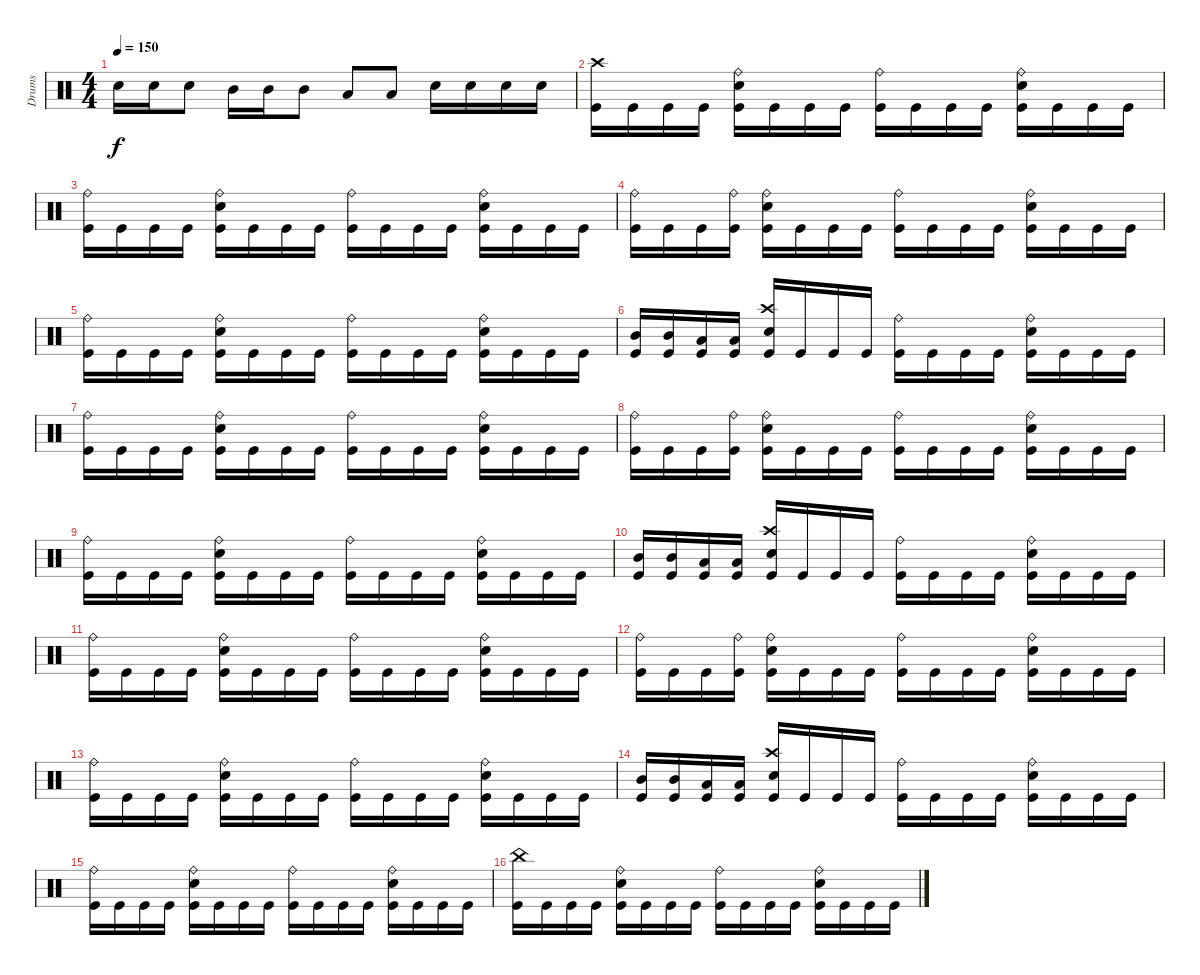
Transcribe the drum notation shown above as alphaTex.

\track ("Drums" "Drums") {instrument percussion}
\staff {score}
\articulation defaults
\ts (4 4)
\tempo 150
\clef neutral
\ks c "Electric Snare (hit)".16{dy f} "Electric Snare (hit)".16 "Electric Snare (hit)".8 "Mid Tom (hit)".16 "Mid Tom (hit)".16 "Mid Tom (hit)".8 "Low Tom (hit)".8 "Low Tom (hit)".8 "Electric Snare (hit)".16 "Electric Snare (hit)".16 "Electric Snare (hit)".16 "Electric Snare (hit)".16
|
("Crash high (hit)" "Kick (hit)").16 "Kick (hit)".16 "Kick (hit)".16 "Kick (hit)".16 ("Ride (bell)" "Electric Snare (hit)" "Kick (hit)").16 "Kick (hit)".16 "Kick (hit)".16 "Kick (hit)".16 ("Ride (bell)" "Kick (hit)").16 "Kick (hit)".16 "Kick (hit)".16 "Kick (hit)".16 ("Ride (bell)" "Electric Snare (hit)" "Kick (hit)").16 "Kick (hit)".16 "Kick (hit)".16 "Kick (hit)".16 |
("Ride (bell)" "Kick (hit)").16 "Kick (hit)".16 "Kick (hit)".16 "Kick (hit)".16 ("Ride (bell)" "Electric Snare (hit)" "Kick (hit)").16 "Kick (hit)".16 "Kick (hit)".16 "Kick (hit)".16 ("Ride (bell)" "Kick (hit)").16 "Kick (hit)".16 "Kick (hit)".16 "Kick (hit)".16 ("Ride (bell)" "Electric Snare (hit)" "Kick (hit)").16 "Kick (hit)".16 "Kick (hit)".16 "Kick (hit)".16 |
("Ride (bell)" "Kick (hit)").16 "Kick (hit)".16 "Kick (hit)".16 ("Ride (bell)" "Kick (hit)").16 ("Ride (bell)" "Electric Snare (hit)" "Kick (hit)").16 "Kick (hit)".16 "Kick (hit)".16 "Kick (hit)".16 ("Ride (bell)" "Kick (hit)").16 "Kick (hit)".16 "Kick (hit)".16 "Kick (hit)".16 ("Ride (bell)" "Electric Snare (hit)" "Kick (hit)").16 "Kick (hit)".16 "Kick (hit)".16 "Kick (hit)".16 |
("Ride (bell)" "Kick (hit)").16 "Kick (hit)".16 "Kick (hit)".16 "Kick (hit)".16 ("Ride (bell)" "Electric Snare (hit)" "Kick (hit)").16 "Kick (hit)".16 "Kick (hit)".16 "Kick (hit)".16 ("Ride (bell)" "Kick (hit)").16 "Kick (hit)".16 "Kick (hit)".16 "Kick (hit)".16 ("Ride (bell)" "Electric Snare (hit)" "Kick (hit)").16 "Kick (hit)".16 "Kick (hit)".16 "Kick (hit)".16 |
("Mid Tom (hit)" "Kick (hit)").16 ("Mid Tom (hit)" "Kick (hit)").16 ("Low Tom (hit)" "Kick (hit)").16 ("Low Tom (hit)" "Kick (hit)").16 ("Crash high (hit)" "Electric Snare (hit)" "Kick (hit)").16 "Kick (hit)".16 "Kick (hit)".16 "Kick (hit)".16 ("Ride (bell)" "Kick (hit)").16 "Kick (hit)".16 "Kick (hit)".16 "Kick (hit)".16 ("Ride (bell)" "Electric Snare (hit)" "Kick (hit)").16 "Kick (hit)".16 "Kick (hit)".16 "Kick (hit)".16 |
("Ride (bell)" "Kick (hit)").16 "Kick (hit)".16 "Kick (hit)".16 "Kick (hit)".16 ("Ride (bell)" "Electric Snare (hit)" "Kick (hit)").16 "Kick (hit)".16 "Kick (hit)".16 "Kick (hit)".16 ("Ride (bell)" "Kick (hit)").16 "Kick (hit)".16 "Kick (hit)".16 "Kick (hit)".16 ("Ride (bell)" "Electric Snare (hit)" "Kick (hit)").16 "Kick (hit)".16 "Kick (hit)".16 "Kick (hit)".16 |
("Ride (bell)" "Kick (hit)").16 "Kick (hit)".16 "Kick (hit)".16 ("Ride (bell)" "Kick (hit)").16 ("Ride (bell)" "Electric Snare (hit)" "Kick (hit)").16 "Kick (hit)".16 "Kick (hit)".16 "Kick (hit)".16 ("Ride (bell)" "Kick (hit)").16 "Kick (hit)".16 "Kick (hit)".16 "Kick (hit)".16 ("Ride (bell)" "Electric Snare (hit)" "Kick (hit)").16 "Kick (hit)".16 "Kick (hit)".16 "Kick (hit)".16 |
("Ride (bell)" "Kick (hit)").16 "Kick (hit)".16 "Kick (hit)".16 "Kick (hit)".16 ("Ride (bell)" "Electric Snare (hit)" "Kick (hit)").16 "Kick (hit)".16 "Kick (hit)".16 "Kick (hit)".16 ("Ride (bell)" "Kick (hit)").16 "Kick (hit)".16 "Kick (hit)".16 "Kick (hit)".16 ("Ride (bell)" "Electric Snare (hit)" "Kick (hit)").16 "Kick (hit)".16 "Kick (hit)".16 "Kick (hit)".16 |
("Mid Tom (hit)" "Kick (hit)").16 ("Mid Tom (hit)" "Kick (hit)").16 ("Low Tom (hit)" "Kick (hit)").16 ("Low Tom (hit)" "Kick (hit)").16 ("Crash high (hit)" "Electric Snare (hit)" "Kick (hit)").16 "Kick (hit)".16 "Kick (hit)".16 "Kick (hit)".16 ("Ride (bell)" "Kick (hit)").16 "Kick (hit)".16 "Kick (hit)".16 "Kick (hit)".16 ("Ride (bell)" "Electric Snare (hit)" "Kick (hit)").16 "Kick (hit)".16 "Kick (hit)".16 "Kick (hit)".16 |
("Ride (bell)" "Kick (hit)").16 "Kick (hit)".16 "Kick (hit)".16 "Kick (hit)".16 ("Ride (bell)" "Electric Snare (hit)" "Kick (hit)").16 "Kick (hit)".16 "Kick (hit)".16 "Kick (hit)".16 ("Ride (bell)" "Kick (hit)").16 "Kick (hit)".16 "Kick (hit)".16 "Kick (hit)".16 ("Ride (bell)" "Electric Snare (hit)" "Kick (hit)").16 "Kick (hit)".16 "Kick (hit)".16 "Kick (hit)".16 |
("Ride (bell)" "Kick (hit)").16 "Kick (hit)".16 "Kick (hit)".16 ("Ride (bell)" "Kick (hit)").16 ("Ride (bell)" "Electric Snare (hit)" "Kick (hit)").16 "Kick (hit)".16 "Kick (hit)".16 "Kick (hit)".16 ("Ride (bell)" "Kick (hit)").16 "Kick (hit)".16 "Kick (hit)".16 "Kick (hit)".16 ("Ride (bell)" "Electric Snare (hit)" "Kick (hit)").16 "Kick (hit)".16 "Kick (hit)".16 "Kick (hit)".16 |
("Ride (bell)" "Kick (hit)").16 "Kick (hit)".16 "Kick (hit)".16 "Kick (hit)".16 ("Ride (bell)" "Electric Snare (hit)" "Kick (hit)").16 "Kick (hit)".16 "Kick (hit)".16 "Kick (hit)".16 ("Ride (bell)" "Kick (hit)").16 "Kick (hit)".16 "Kick (hit)".16 "Kick (hit)".16 ("Ride (bell)" "Electric Snare (hit)" "Kick (hit)").16 "Kick (hit)".16 "Kick (hit)".16 "Kick (hit)".16 |
("Mid Tom (hit)" "Kick (hit)").16 ("Mid Tom (hit)" "Kick (hit)").16 ("Low Tom (hit)" "Kick (hit)").16 ("Low Tom (hit)" "Kick (hit)").16 ("Crash high (hit)" "Electric Snare (hit)" "Kick (hit)").16 "Kick (hit)".16 "Kick (hit)".16 "Kick (hit)".16 ("Ride (bell)" "Kick (hit)").16 "Kick (hit)".16 "Kick (hit)".16 "Kick (hit)".16 ("Ride (bell)" "Electric Snare (hit)" "Kick (hit)").16 "Kick (hit)".16 "Kick (hit)".16 "Kick (hit)".16 |
("Ride (bell)" "Kick (hit)").16 "Kick (hit)".16 "Kick (hit)".16 "Kick (hit)".16 ("Ride (bell)" "Electric Snare (hit)" "Kick (hit)").16 "Kick (hit)".16 "Kick (hit)".16 "Kick (hit)".16 ("Ride (bell)" "Kick (hit)").16 "Kick (hit)".16 "Kick (hit)".16 "Kick (hit)".16 ("Ride (bell)" "Electric Snare (hit)" "Kick (hit)").16 "Kick (hit)".16 "Kick (hit)".16 "Kick (hit)".16 |
("China (hit)" "Kick (hit)").16 "Kick (hit)".16 "Kick (hit)".16 "Kick (hit)".16 ("Ride (bell)" "Electric Snare (hit)" "Kick (hit)").16 "Kick (hit)".16 "Kick (hit)".16 "Kick (hit)".16 ("Ride (bell)" "Kick (hit)").16 "Kick (hit)".16 "Kick (hit)".16 "Kick (hit)".16 ("Ride (bell)" "Electric Snare (hit)" "Kick (hit)").16 "Kick (hit)".16 "Kick (hit)".16 "Kick (hit)".16
